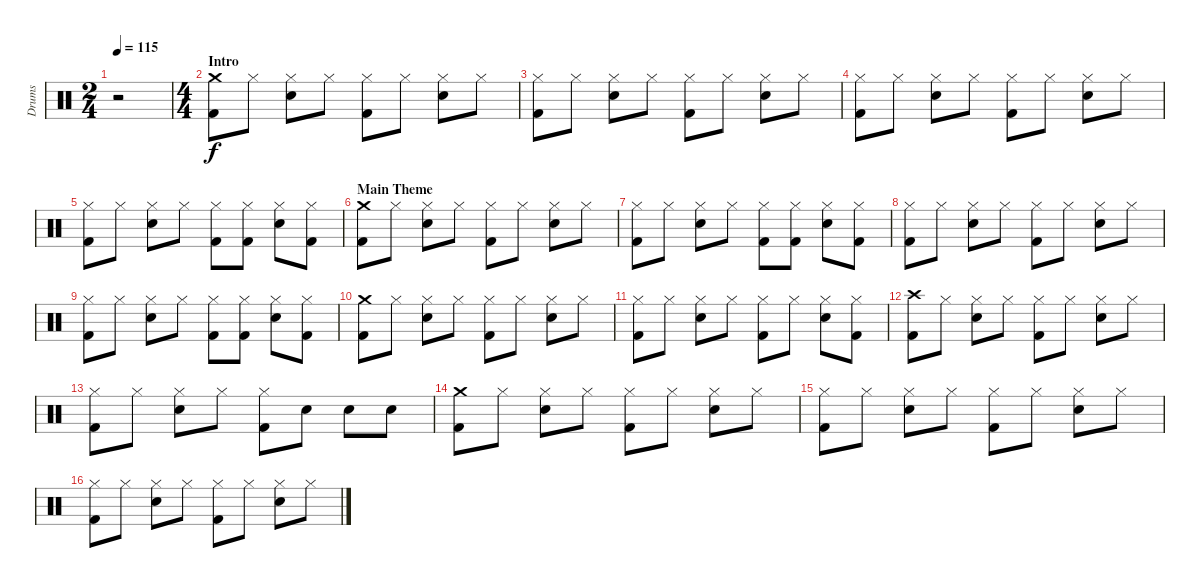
\track ("Drums   " "Drums   ") {instrument percussion}
\staff {score}
\articulation defaults
\ts (2 4)
\tempo 115
\clef neutral
\ks c
r.2{dy f} |
\ts (4 4)
\section ("" "Intro")
("Crash medium (hit)" "Kick (hit) 2").8 "Hi-Hat (closed)".8 ("Hi-Hat (closed)" "Snare (hit) 2").8 "Hi-Hat (closed)".8 ("Hi-Hat (closed)" "Kick (hit) 2").8 "Hi-Hat (closed)".8 ("Hi-Hat (closed)" "Snare (hit) 2").8 "Hi-Hat (closed)".8 |
("Hi-Hat (closed)" "Kick (hit) 2").8 "Hi-Hat (closed)".8 ("Hi-Hat (closed)" "Snare (hit) 2").8 "Hi-Hat (closed)".8 ("Hi-Hat (closed)" "Kick (hit) 2").8 "Hi-Hat (closed)".8 ("Hi-Hat (closed)" "Snare (hit) 2").8 "Hi-Hat (closed)".8 |
("Hi-Hat (closed)" "Kick (hit) 2").8 "Hi-Hat (closed)".8 ("Hi-Hat (closed)" "Snare (hit) 2").8 "Hi-Hat (closed)".8 ("Hi-Hat (closed)" "Kick (hit) 2").8 "Hi-Hat (closed)".8 ("Hi-Hat (closed)" "Snare (hit) 2").8 "Hi-Hat (closed)".8 |
("Hi-Hat (closed)" "Kick (hit) 2").8 "Hi-Hat (closed)".8 ("Hi-Hat (closed)" "Snare (hit) 2").8 "Hi-Hat (closed)".8 ("Hi-Hat (closed)" "Kick (hit) 2").8 ("Hi-Hat (closed)" "Kick (hit) 2").8 ("Hi-Hat (closed)" "Snare (hit) 2").8 ("Hi-Hat (closed)" "Kick (hit) 2").8 |
\section ("" "Main Theme")
("Crash medium (hit)" "Kick (hit) 2").8 "Hi-Hat (closed)".8 ("Hi-Hat (closed)" "Snare (hit) 2").8 "Hi-Hat (closed)".8 ("Hi-Hat (closed)" "Kick (hit) 2").8 "Hi-Hat (closed)".8 ("Hi-Hat (closed)" "Snare (hit) 2").8 "Hi-Hat (closed)".8 |
("Hi-Hat (closed)" "Kick (hit) 2").8 "Hi-Hat (closed)".8 ("Hi-Hat (closed)" "Snare (hit) 2").8 "Hi-Hat (closed)".8 ("Hi-Hat (closed)" "Kick (hit) 2").8 ("Hi-Hat (closed)" "Kick (hit) 2").8 ("Hi-Hat (closed)" "Snare (hit) 2").8 ("Hi-Hat (closed)" "Kick (hit) 2").8 |
("Hi-Hat (closed)" "Kick (hit) 2").8 "Hi-Hat (closed)".8 ("Hi-Hat (closed)" "Snare (hit) 2").8 "Hi-Hat (closed)".8 ("Hi-Hat (closed)" "Kick (hit) 2").8 "Hi-Hat (closed)".8 ("Hi-Hat (closed)" "Snare (hit) 2").8 "Hi-Hat (closed)".8 |
("Hi-Hat (closed)" "Kick (hit) 2").8 "Hi-Hat (closed)".8 ("Hi-Hat (closed)" "Snare (hit) 2").8 "Hi-Hat (closed)".8 ("Hi-Hat (closed)" "Kick (hit) 2").8 ("Hi-Hat (closed)" "Kick (hit) 2").8 ("Hi-Hat (closed)" "Snare (hit) 2").8 ("Hi-Hat (closed)" "Kick (hit) 2").8 |
("Crash medium (hit)" "Kick (hit) 2").8 "Hi-Hat (closed)".8 ("Hi-Hat (closed)" "Snare (hit) 2").8 "Hi-Hat (closed)".8 ("Hi-Hat (closed)" "Kick (hit) 2").8 "Hi-Hat (closed)".8 ("Hi-Hat (closed)" "Snare (hit) 2").8 "Hi-Hat (closed)".8 |
("Hi-Hat (closed)" "Kick (hit) 2").8 "Hi-Hat (closed)".8 ("Hi-Hat (closed)" "Snare (hit) 2").8 "Hi-Hat (closed)".8 ("Hi-Hat (closed)" "Kick (hit) 2").8 "Hi-Hat (closed)".8 ("Hi-Hat (closed)" "Snare (hit) 2").8 ("Hi-Hat (closed)" "Kick (hit) 2").8 |
("Crash high (hit)" "Kick (hit) 2").8 "Hi-Hat (closed)".8 ("Hi-Hat (closed)" "Snare (hit) 2").8 "Hi-Hat (closed)".8 ("Hi-Hat (closed)" "Kick (hit) 2").8 "Hi-Hat (closed)".8 ("Hi-Hat (closed)" "Snare (hit) 2").8 "Hi-Hat (closed)".8 |
("Hi-Hat (closed)" "Kick (hit) 2").8 "Hi-Hat (closed)".8 ("Hi-Hat (closed)" "Snare (hit) 2").8 "Hi-Hat (closed)".8 ("Hi-Hat (closed)" "Kick (hit) 2").8 "Snare (hit) 2".8 "Snare (hit) 2".8 "Snare (hit) 2".8 |
("Crash medium (hit)" "Kick (hit) 2").8 "Hi-Hat (closed)".8 ("Hi-Hat (closed)" "Snare (hit) 2").8 "Hi-Hat (closed)".8 ("Hi-Hat (closed)" "Kick (hit) 2").8 "Hi-Hat (closed)".8 ("Hi-Hat (closed)" "Snare (hit) 2").8 "Hi-Hat (closed)".8 |
("Hi-Hat (closed)" "Kick (hit) 2").8 "Hi-Hat (closed)".8 ("Hi-Hat (closed)" "Snare (hit) 2").8 "Hi-Hat (closed)".8 ("Hi-Hat (closed)" "Kick (hit) 2").8 "Hi-Hat (closed)".8 ("Hi-Hat (closed)" "Snare (hit) 2").8 "Hi-Hat (closed)".8 |
("Hi-Hat (closed)" "Kick (hit) 2").8 "Hi-Hat (closed)".8 ("Hi-Hat (closed)" "Snare (hit) 2").8 "Hi-Hat (closed)".8 ("Hi-Hat (closed)" "Kick (hit) 2").8 "Hi-Hat (closed)".8 ("Hi-Hat (closed)" "Snare (hit) 2").8 "Hi-Hat (closed)".8
